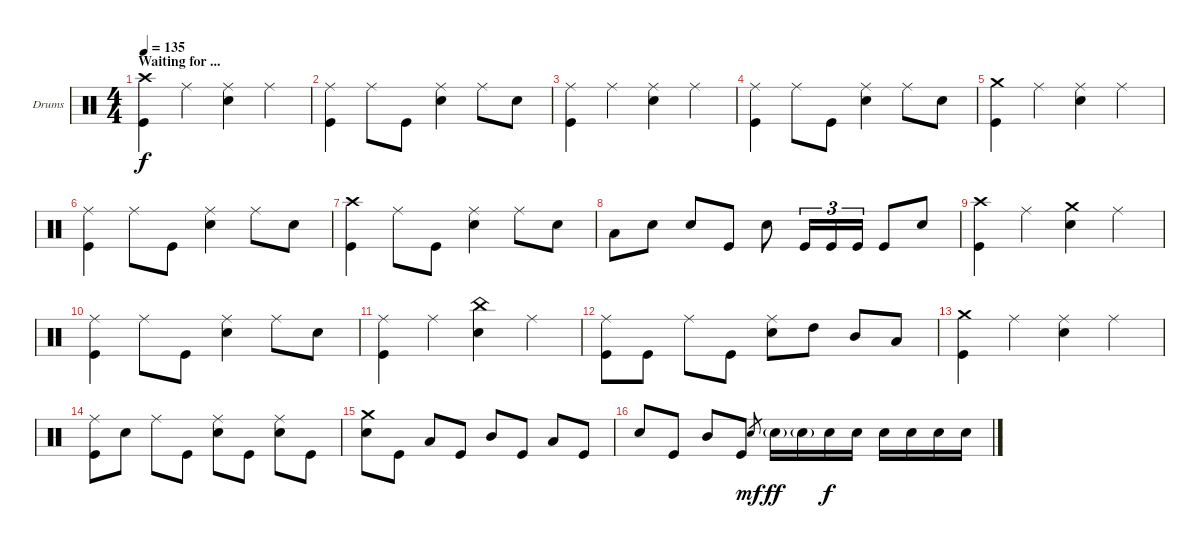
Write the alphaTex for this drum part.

\defaultSystemsLayout 4
\bracketExtendMode groupsimilarinstruments
\firstSystemTrackNameOrientation horizontal
\otherSystemsTrackNameOrientation horizontal
\track ("Drumkit" "Drums") {instrument percussion}
\staff {score}
\articulation defaults
\ts (4 4)
\section ("" "Waiting for ...")
\tempo 135
\clef neutral
\scale
0.5
\ks c
("Crash high (hit)" "Kick (hit)").4{dy f} "Ride (middle)".4 ("Ride (middle)" "Snare (hit) 2").4 "Ride (middle)".4 |
\scale
0.5 ("Ride (middle)" "Kick (hit)").4 "Ride (middle)".8 "Kick (hit)".8 ("Ride (middle)" "Snare (hit) 2").4 "Ride (middle)".8 "Snare (hit) 2".8 |
\scale
0.5 ("Ride (middle)" "Kick (hit)").4 "Ride (middle)".4 ("Ride (middle)" "Snare (hit) 2").4 "Ride (middle)".4 |
\scale
0.5 ("Ride (middle)" "Kick (hit)").4 "Ride (middle)".8 "Kick (hit)".8 ("Ride (middle)" "Snare (hit) 2").4 "Ride (middle)".8 "Snare (hit) 2".8 |
\scale
0.5 ("Crash medium (hit)" "Kick (hit)").4 "Ride (middle)".4 ("Ride (middle)" "Snare (hit) 2").4 "Ride (middle)".4 |
\scale
0.5 ("Ride (middle)" "Kick (hit)").4 "Ride (middle)".8 "Kick (hit)".8 ("Ride (middle)" "Snare (hit) 2").4 "Ride (middle)".8 "Snare (hit) 2".8 |
\scale
0.5 ("Crash high (hit)" "Kick (hit)").4 "Ride (middle)".8 "Kick (hit)".8 ("Ride (middle)" "Snare (hit) 2").4 "Ride (middle)".8 "Snare (hit) 2".8 |
\scale
0.5 "Low Tom (hit)".8 "Snare (hit) 2".8 "Snare (hit) 2".8 "Kick (hit)".8 "Snare (hit) 2".8 "Kick (hit)".16{tu (3 2)} "Kick (hit)".16{tu (3 2)} "Kick (hit)".16{tu (3 2)} "Kick (hit)".8 "Snare (hit) 2".8 |
\scale
0.5 ("Crash high (hit)" "Kick (hit)").4 "Ride (middle)".4 ("Crash medium (hit)" "Snare (hit) 2").4 "Ride (middle)".4 |
\scale
0.5 ("Ride (middle)" "Kick (hit)").4 "Ride (middle)".8 "Kick (hit)".8 ("Ride (middle)" "Snare (hit) 2").4 "Ride (middle)".8 "Snare (hit) 2".8 |
\scale
0.5 ("Ride (middle)" "Kick (hit)").4 "Ride (middle)".4 ("China (hit)" "Snare (hit) 2").4 "Ride (middle)".4 |
\scale
0.5 ("Ride (middle)" "Kick (hit)").8 "Kick (hit)".8 "Ride (middle)".8 "Kick (hit)".8 ("Ride (middle)" "Snare (hit) 2").8 "High Tom (hit)".8 "Mid Tom (hit)".8 "Low Tom (hit)".8 |
\scale
0.5 ("Crash medium (hit)" "Kick (hit)").4 "Ride (middle)".4 ("Ride (middle)" "Snare (hit) 2").4 "Ride (middle)".4 |
\scale
0.5 ("Ride (middle)" "Kick (hit)").8 "Snare (hit) 2".8 "Ride (middle)".8 "Kick (hit)".8 ("Ride (middle)" "Snare (hit) 2").8 "Kick (hit)".8 ("Ride (middle)" "Snare (hit) 2").8 "Kick (hit)".8 |
\scale
0.5 ("Crash medium (hit)" "Snare (hit) 2").8 "Kick (hit)".8 "Low Tom (hit)".8 "Kick (hit)".8 "Mid Tom (hit)".8 "Kick (hit)".8 "Low Tom (hit)".8 "Kick (hit)".8 |
\scale
0.5 "Snare (hit) 2".8 "Kick (hit)".8 "Mid Tom (hit)".8 "Kick (hit)".8 "Snare (hit) 2".8{gr dy mf} "Snare (hit) 2"{g}.16{dy ff} "Snare (hit) 2"{g}.16 "Snare (hit) 2".16{dy f} "Snare (hit) 2".16 "Snare (hit) 2".16 "Snare (hit) 2".16 "Snare (hit) 2".16 "Snare (hit) 2".16
